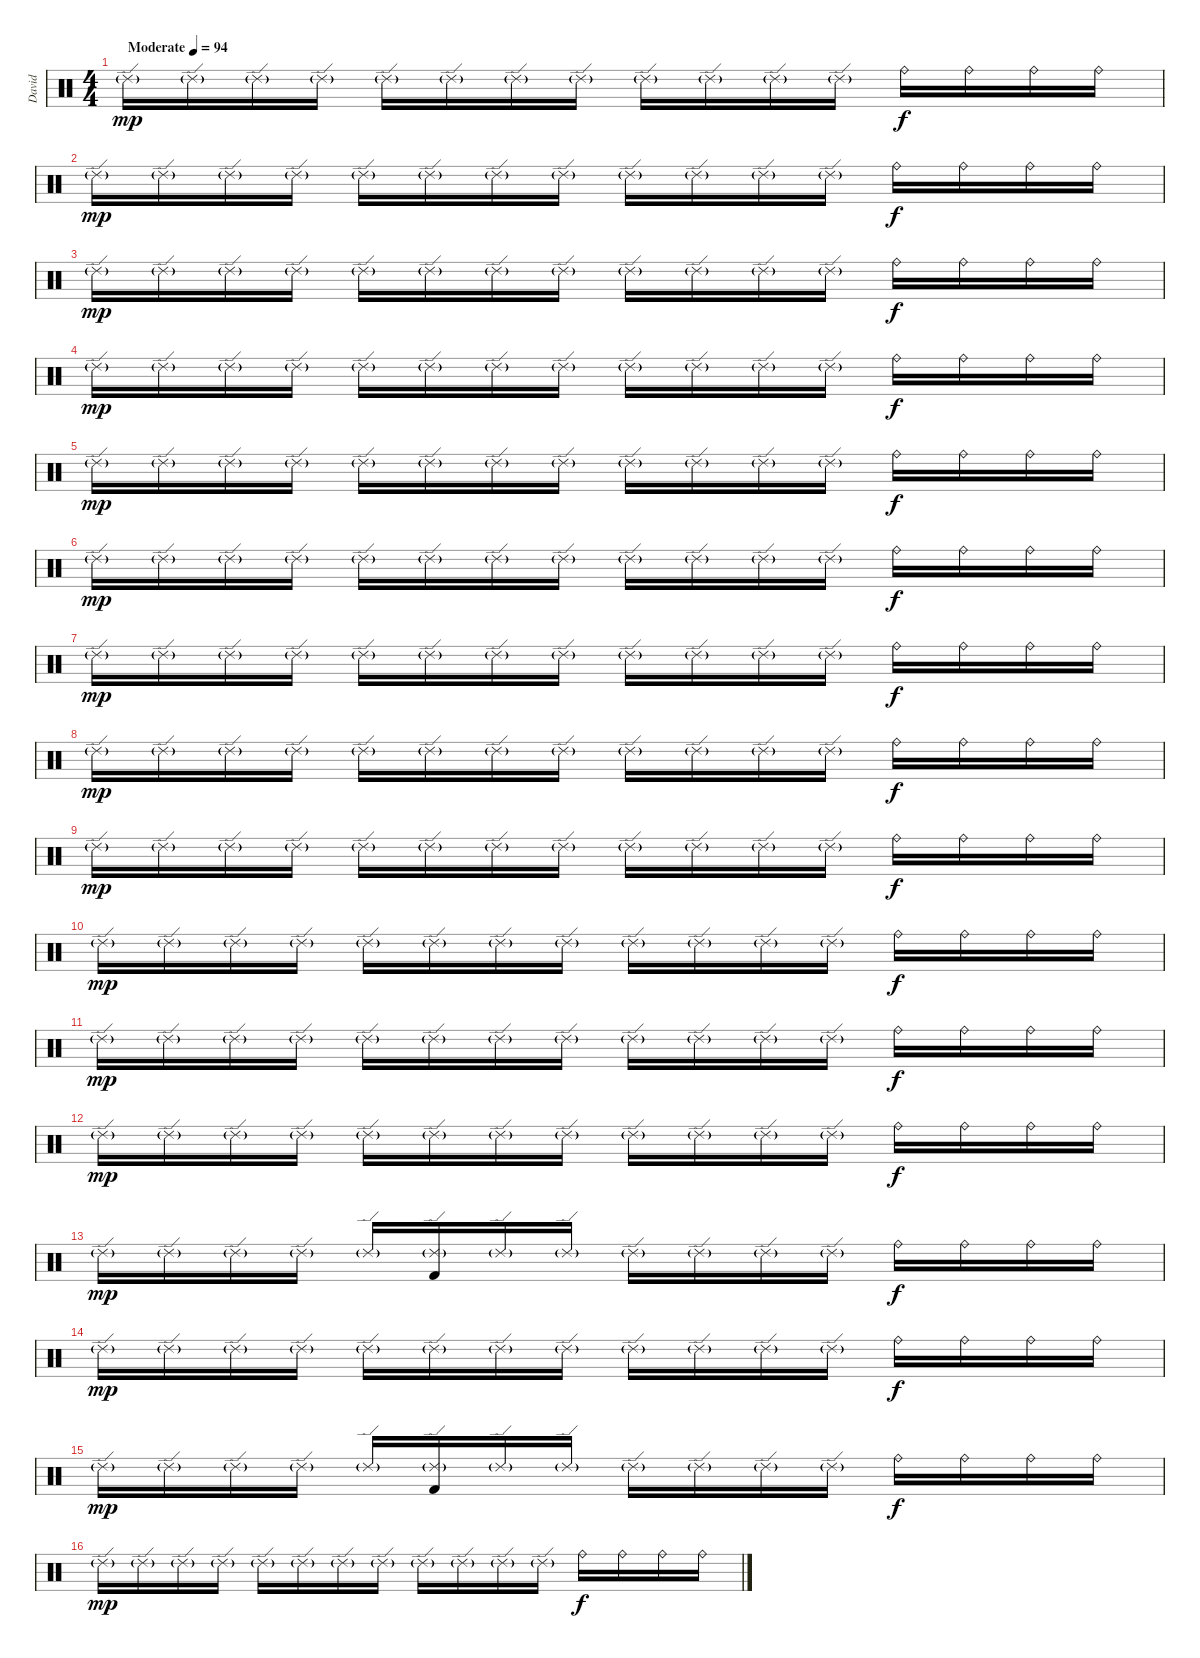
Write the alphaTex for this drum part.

\track ("David" "David") {instrument percussion}
\staff {score}
\articulation defaults
\ts (4 4)
\tempo (94 "Moderate")
\clef neutral
\ks c "Ride (edge) 2"{g}.16{dy mp} "Ride (edge) 2"{g}.16 "Ride (edge) 2"{g}.16 "Ride (edge) 2"{g}.16 "Ride (edge) 2"{g}.16 "Ride (edge) 2"{g}.16 "Ride (edge) 2"{g}.16 "Ride (edge) 2"{g}.16 "Ride (edge) 2"{g}.16 "Ride (edge) 2"{g}.16 "Ride (edge) 2"{g}.16 "Ride (edge) 2"{g}.16 "Ride (bell)".16{dy f} "Ride (bell)".16 "Ride (bell)".16 "Ride (bell)".16
|
"Ride (edge) 2"{g}.16{dy mp} "Ride (edge) 2"{g}.16 "Ride (edge) 2"{g}.16 "Ride (edge) 2"{g}.16 "Ride (edge) 2"{g}.16 "Ride (edge) 2"{g}.16 "Ride (edge) 2"{g}.16 "Ride (edge) 2"{g}.16 "Ride (edge) 2"{g}.16 "Ride (edge) 2"{g}.16 "Ride (edge) 2"{g}.16 "Ride (edge) 2"{g}.16 "Ride (bell)".16{dy f} "Ride (bell)".16 "Ride (bell)".16 "Ride (bell)".16 |
"Ride (edge) 2"{g}.16{dy mp} "Ride (edge) 2"{g}.16 "Ride (edge) 2"{g}.16 "Ride (edge) 2"{g}.16 "Ride (edge) 2"{g}.16 "Ride (edge) 2"{g}.16 "Ride (edge) 2"{g}.16 "Ride (edge) 2"{g}.16 "Ride (edge) 2"{g}.16 "Ride (edge) 2"{g}.16 "Ride (edge) 2"{g}.16 "Ride (edge) 2"{g}.16 "Ride (bell)".16{dy f} "Ride (bell)".16 "Ride (bell)".16 "Ride (bell)".16 |
"Ride (edge) 2"{g}.16{dy mp} "Ride (edge) 2"{g}.16 "Ride (edge) 2"{g}.16 "Ride (edge) 2"{g}.16 "Ride (edge) 2"{g}.16 "Ride (edge) 2"{g}.16 "Ride (edge) 2"{g}.16 "Ride (edge) 2"{g}.16 "Ride (edge) 2"{g}.16 "Ride (edge) 2"{g}.16 "Ride (edge) 2"{g}.16 "Ride (edge) 2"{g}.16 "Ride (bell)".16{dy f} "Ride (bell)".16 "Ride (bell)".16 "Ride (bell)".16 |
"Ride (edge) 2"{g}.16{dy mp} "Ride (edge) 2"{g}.16 "Ride (edge) 2"{g}.16 "Ride (edge) 2"{g}.16 "Ride (edge) 2"{g}.16 "Ride (edge) 2"{g}.16 "Ride (edge) 2"{g}.16 "Ride (edge) 2"{g}.16 "Ride (edge) 2"{g}.16 "Ride (edge) 2"{g}.16 "Ride (edge) 2"{g}.16 "Ride (edge) 2"{g}.16 "Ride (bell)".16{dy f} "Ride (bell)".16 "Ride (bell)".16 "Ride (bell)".16 |
"Ride (edge) 2"{g}.16{dy mp} "Ride (edge) 2"{g}.16 "Ride (edge) 2"{g}.16 "Ride (edge) 2"{g}.16 "Ride (edge) 2"{g}.16 "Ride (edge) 2"{g}.16 "Ride (edge) 2"{g}.16 "Ride (edge) 2"{g}.16 "Ride (edge) 2"{g}.16 "Ride (edge) 2"{g}.16 "Ride (edge) 2"{g}.16 "Ride (edge) 2"{g}.16 "Ride (bell)".16{dy f} "Ride (bell)".16 "Ride (bell)".16 "Ride (bell)".16 |
"Ride (edge) 2"{g}.16{dy mp} "Ride (edge) 2"{g}.16 "Ride (edge) 2"{g}.16 "Ride (edge) 2"{g}.16 "Ride (edge) 2"{g}.16 "Ride (edge) 2"{g}.16 "Ride (edge) 2"{g}.16 "Ride (edge) 2"{g}.16 "Ride (edge) 2"{g}.16 "Ride (edge) 2"{g}.16 "Ride (edge) 2"{g}.16 "Ride (edge) 2"{g}.16 "Ride (bell)".16{dy f} "Ride (bell)".16 "Ride (bell)".16 "Ride (bell)".16 |
"Ride (edge) 2"{g}.16{dy mp} "Ride (edge) 2"{g}.16 "Ride (edge) 2"{g}.16 "Ride (edge) 2"{g}.16 "Ride (edge) 2"{g}.16 "Ride (edge) 2"{g}.16 "Ride (edge) 2"{g}.16 "Ride (edge) 2"{g}.16 "Ride (edge) 2"{g}.16 "Ride (edge) 2"{g}.16 "Ride (edge) 2"{g}.16 "Ride (edge) 2"{g}.16 "Ride (bell)".16{dy f} "Ride (bell)".16 "Ride (bell)".16 "Ride (bell)".16 |
"Ride (edge) 2"{g}.16{dy mp} "Ride (edge) 2"{g}.16 "Ride (edge) 2"{g}.16 "Ride (edge) 2"{g}.16 "Ride (edge) 2"{g}.16 "Ride (edge) 2"{g}.16 "Ride (edge) 2"{g}.16 "Ride (edge) 2"{g}.16 "Ride (edge) 2"{g}.16 "Ride (edge) 2"{g}.16 "Ride (edge) 2"{g}.16 "Ride (edge) 2"{g}.16 "Ride (bell)".16{dy f} "Ride (bell)".16 "Ride (bell)".16 "Ride (bell)".16 |
"Ride (edge) 2"{g}.16{dy mp} "Ride (edge) 2"{g}.16 "Ride (edge) 2"{g}.16 "Ride (edge) 2"{g}.16 "Ride (edge) 2"{g}.16 "Ride (edge) 2"{g}.16 "Ride (edge) 2"{g}.16 "Ride (edge) 2"{g}.16 "Ride (edge) 2"{g}.16 "Ride (edge) 2"{g}.16 "Ride (edge) 2"{g}.16 "Ride (edge) 2"{g}.16 "Ride (bell)".16{dy f} "Ride (bell)".16 "Ride (bell)".16 "Ride (bell)".16 |
"Ride (edge) 2"{g}.16{dy mp} "Ride (edge) 2"{g}.16 "Ride (edge) 2"{g}.16 "Ride (edge) 2"{g}.16 "Ride (edge) 2"{g}.16 "Ride (edge) 2"{g}.16 "Ride (edge) 2"{g}.16 "Ride (edge) 2"{g}.16 "Ride (edge) 2"{g}.16 "Ride (edge) 2"{g}.16 "Ride (edge) 2"{g}.16 "Ride (edge) 2"{g}.16 "Ride (bell)".16{dy f} "Ride (bell)".16 "Ride (bell)".16 "Ride (bell)".16 |
"Ride (edge) 2"{g}.16{dy mp} "Ride (edge) 2"{g}.16 "Ride (edge) 2"{g}.16 "Ride (edge) 2"{g}.16 "Ride (edge) 2"{g}.16 "Ride (edge) 2"{g}.16 "Ride (edge) 2"{g}.16 "Ride (edge) 2"{g}.16 "Ride (edge) 2"{g}.16 "Ride (edge) 2"{g}.16 "Ride (edge) 2"{g}.16 "Ride (edge) 2"{g}.16 "Ride (bell)".16{dy f} "Ride (bell)".16 "Ride (bell)".16 "Ride (bell)".16 |
"Ride (edge) 2"{g}.16{dy mp} "Ride (edge) 2"{g}.16 "Ride (edge) 2"{g}.16 "Ride (edge) 2"{g}.16 "Ride (edge) 2"{g}.16 ("Kick (hit) 2" "Ride (edge) 2"{g}).16 "Ride (edge) 2"{g}.16 "Ride (edge) 2"{g}.16 "Ride (edge) 2"{g}.16 "Ride (edge) 2"{g}.16 "Ride (edge) 2"{g}.16 "Ride (edge) 2"{g}.16 "Ride (bell)".16{dy f} "Ride (bell)".16 "Ride (bell)".16 "Ride (bell)".16 |
"Ride (edge) 2"{g}.16{dy mp} "Ride (edge) 2"{g}.16 "Ride (edge) 2"{g}.16 "Ride (edge) 2"{g}.16 "Ride (edge) 2"{g}.16 "Ride (edge) 2"{g}.16 "Ride (edge) 2"{g}.16 "Ride (edge) 2"{g}.16 "Ride (edge) 2"{g}.16 "Ride (edge) 2"{g}.16 "Ride (edge) 2"{g}.16 "Ride (edge) 2"{g}.16 "Ride (bell)".16{dy f} "Ride (bell)".16 "Ride (bell)".16 "Ride (bell)".16 |
"Ride (edge) 2"{g}.16{dy mp} "Ride (edge) 2"{g}.16 "Ride (edge) 2"{g}.16 "Ride (edge) 2"{g}.16 "Ride (edge) 2"{g}.16 ("Kick (hit) 2" "Ride (edge) 2"{g}).16 "Ride (edge) 2"{g}.16 "Ride (edge) 2"{g}.16 "Ride (edge) 2"{g}.16 "Ride (edge) 2"{g}.16 "Ride (edge) 2"{g}.16 "Ride (edge) 2"{g}.16 "Ride (bell)".16{dy f} "Ride (bell)".16 "Ride (bell)".16 "Ride (bell)".16 |
"Ride (edge) 2"{g}.16{dy mp} "Ride (edge) 2"{g}.16 "Ride (edge) 2"{g}.16 "Ride (edge) 2"{g}.16 "Ride (edge) 2"{g}.16 "Ride (edge) 2"{g}.16 "Ride (edge) 2"{g}.16 "Ride (edge) 2"{g}.16 "Ride (edge) 2"{g}.16 "Ride (edge) 2"{g}.16 "Ride (edge) 2"{g}.16 "Ride (edge) 2"{g}.16 "Ride (bell)".16{dy f} "Ride (bell)".16 "Ride (bell)".16 "Ride (bell)".16
